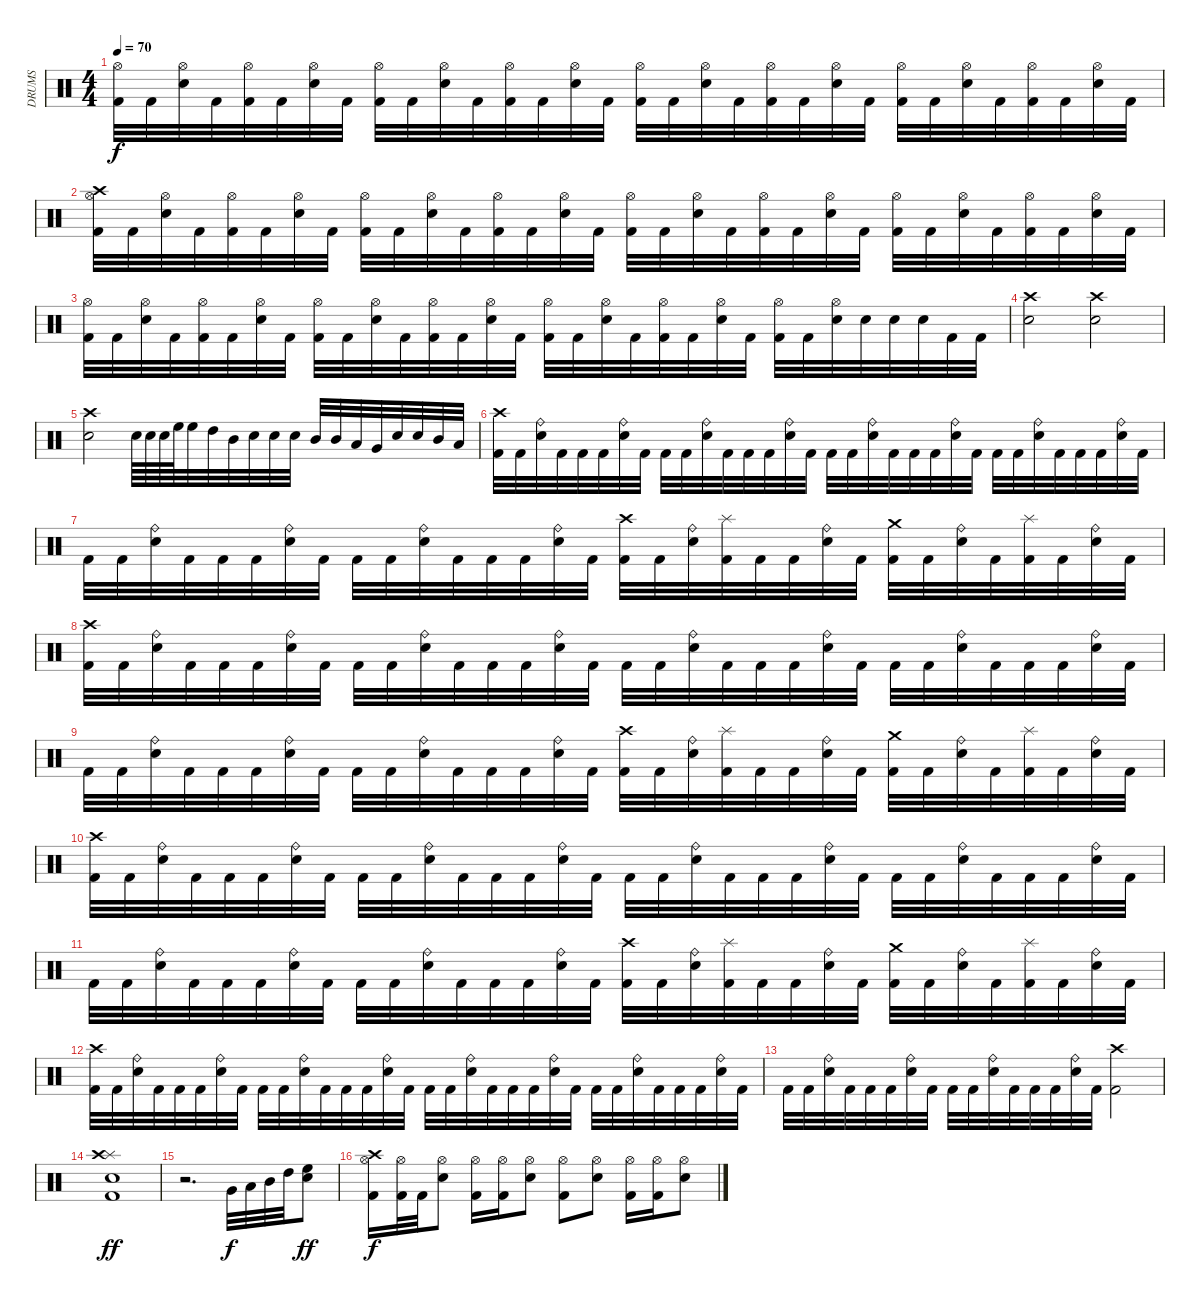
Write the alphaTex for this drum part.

\track ("DRUMS" "DRUMS") {instrument percussion}
\staff {score}
\articulation defaults
\ts (4 4)
\tempo 70
\clef neutral
\ks c
("Hi-Hat (open)" "Kick (hit) 2").32{dy f} "Kick (hit) 2".32 ("Hi-Hat (open)" "Snare (hit) 2").32 "Kick (hit) 2".32 ("Hi-Hat (open)" "Kick (hit) 2").32 "Kick (hit) 2".32 ("Hi-Hat (open)" "Snare (hit) 2").32 "Kick (hit) 2".32 ("Hi-Hat (open)" "Kick (hit) 2").32 "Kick (hit) 2".32 ("Hi-Hat (open)" "Snare (hit) 2").32 "Kick (hit) 2".32 ("Hi-Hat (open)" "Kick (hit) 2").32 "Kick (hit) 2".32 ("Hi-Hat (open)" "Snare (hit) 2").32 "Kick (hit) 2".32 ("Hi-Hat (open)" "Kick (hit) 2").32 "Kick (hit) 2".32 ("Hi-Hat (open)" "Snare (hit) 2").32 "Kick (hit) 2".32 ("Hi-Hat (open)" "Kick (hit) 2").32 "Kick (hit) 2".32 ("Hi-Hat (open)" "Snare (hit) 2").32 "Kick (hit) 2".32 ("Hi-Hat (open)" "Kick (hit) 2").32 "Kick (hit) 2".32 ("Hi-Hat (open)" "Snare (hit) 2").32 "Kick (hit) 2".32 ("Hi-Hat (open)" "Kick (hit) 2").32 "Kick (hit) 2".32 ("Hi-Hat (open)" "Snare (hit) 2").32 "Kick (hit) 2".32 |
("Hi-Hat (open)" "Crash high (hit)" "Kick (hit) 2").32 "Kick (hit) 2".32 ("Hi-Hat (open)" "Snare (hit) 2").32 "Kick (hit) 2".32 ("Hi-Hat (open)" "Kick (hit) 2").32 "Kick (hit) 2".32 ("Hi-Hat (open)" "Snare (hit) 2").32 "Kick (hit) 2".32 ("Hi-Hat (open)" "Kick (hit) 2").32 "Kick (hit) 2".32 ("Hi-Hat (open)" "Snare (hit) 2").32 "Kick (hit) 2".32 ("Hi-Hat (open)" "Kick (hit) 2").32 "Kick (hit) 2".32 ("Hi-Hat (open)" "Snare (hit) 2").32 "Kick (hit) 2".32 ("Hi-Hat (open)" "Kick (hit) 2").32 "Kick (hit) 2".32 ("Hi-Hat (open)" "Snare (hit) 2").32 "Kick (hit) 2".32 ("Hi-Hat (open)" "Kick (hit) 2").32 "Kick (hit) 2".32 ("Hi-Hat (open)" "Snare (hit) 2").32 "Kick (hit) 2".32 ("Hi-Hat (open)" "Kick (hit) 2").32 "Kick (hit) 2".32 ("Hi-Hat (open)" "Snare (hit) 2").32 "Kick (hit) 2".32 ("Hi-Hat (open)" "Kick (hit) 2").32 "Kick (hit) 2".32 ("Hi-Hat (open)" "Snare (hit) 2").32 "Kick (hit) 2".32 |
("Hi-Hat (open)" "Kick (hit) 2").32 "Kick (hit) 2".32 ("Hi-Hat (open)" "Snare (hit) 2").32 "Kick (hit) 2".32 ("Hi-Hat (open)" "Kick (hit) 2").32 "Kick (hit) 2".32 ("Hi-Hat (open)" "Snare (hit) 2").32 "Kick (hit) 2".32 ("Hi-Hat (open)" "Kick (hit) 2").32 "Kick (hit) 2".32 ("Hi-Hat (open)" "Snare (hit) 2").32 "Kick (hit) 2".32 ("Hi-Hat (open)" "Kick (hit) 2").32 "Kick (hit) 2".32 ("Hi-Hat (open)" "Snare (hit) 2").32 "Kick (hit) 2".32 ("Hi-Hat (open)" "Kick (hit) 2").32 "Kick (hit) 2".32 ("Hi-Hat (open)" "Snare (hit) 2").32 "Kick (hit) 2".32 ("Hi-Hat (open)" "Kick (hit) 2").32 "Kick (hit) 2".32 ("Hi-Hat (open)" "Snare (hit) 2").32 "Kick (hit) 2".32 ("Hi-Hat (open)" "Kick (hit) 2").32 "Kick (hit) 2".32 ("Hi-Hat (open)" "Snare (hit) 2").32 "Snare (hit) 2".32 "Snare (hit) 2".32 "Snare (hit) 2".32 "Kick (hit) 2".32 "Kick (hit) 2".32 |
("Crash high (hit)" "Snare (hit) 2").2 ("Crash high (hit)" "Snare (hit) 2").2 |
("Crash high (hit)" "Snare (hit) 2").2 "Snare (hit) 2".64 "Snare (hit) 2".64 "Snare (hit) 2".64 "High Floor Tom (hit)".64 "High Floor Tom (hit)".32 "High Tom (hit)".32 "Mid Tom (hit)".32 "Snare (hit) 2".32 "Snare (hit) 2".32 "Snare (hit) 2".32 "Mid Tom (hit)".32 "Mid Tom (hit)".32 "Low Tom (hit)".32 "Very Low Tom (hit)".32 "Snare (hit) 2".32 "Snare (hit) 2".32 "Mid Tom (hit)".32 "Low Tom (hit)".32 |
("Crash high (hit)" "Kick (hit) 2").32 "Kick (hit) 2".32 ("Ride (bell)" "Snare (hit) 2").32 "Kick (hit) 2".32 "Kick (hit) 2".32 "Kick (hit) 2".32 ("Ride (bell)" "Snare (hit) 2").32 "Kick (hit) 2".32 "Kick (hit) 2".32 "Kick (hit) 2".32 ("Ride (bell)" "Snare (hit) 2").32 "Kick (hit) 2".32 "Kick (hit) 2".32 "Kick (hit) 2".32 ("Ride (bell)" "Snare (hit) 2").32 "Kick (hit) 2".32 "Kick (hit) 2".32 "Kick (hit) 2".32 ("Ride (bell)" "Snare (hit) 2").32 "Kick (hit) 2".32 "Kick (hit) 2".32 "Kick (hit) 2".32 ("Ride (bell)" "Snare (hit) 2").32 "Kick (hit) 2".32 "Kick (hit) 2".32 "Kick (hit) 2".32 ("Ride (bell)" "Snare (hit) 2").32 "Kick (hit) 2".32 "Kick (hit) 2".32 "Kick (hit) 2".32 ("Ride (bell)" "Snare (hit) 2").32 "Kick (hit) 2".32 |
"Kick (hit) 2".32 "Kick (hit) 2".32 ("Ride (bell)" "Snare (hit) 2").32 "Kick (hit) 2".32 "Kick (hit) 2".32 "Kick (hit) 2".32 ("Ride (bell)" "Snare (hit) 2").32 "Kick (hit) 2".32 "Kick (hit) 2".32 "Kick (hit) 2".32 ("Ride (bell)" "Snare (hit) 2").32 "Kick (hit) 2".32 "Kick (hit) 2".32 "Kick (hit) 2".32 ("Ride (bell)" "Snare (hit) 2").32 "Kick (hit) 2".32 ("Crash high (hit)" "Kick (hit) 2").32 "Kick (hit) 2".32 ("Ride (bell)" "Snare (hit) 2").32 ("Splash (hit)" "Kick (hit) 2").32 "Kick (hit) 2".32 "Kick (hit) 2".32 ("Ride (bell)" "Snare (hit) 2").32 "Kick (hit) 2".32 ("Crash medium (hit)" "Kick (hit) 2").32 "Kick (hit) 2".32 ("Ride (bell)" "Snare (hit) 2").32 "Kick (hit) 2".32 ("Splash (hit)" "Kick (hit) 2").32 "Kick (hit) 2".32 ("Ride (bell)" "Snare (hit) 2").32 "Kick (hit) 2".32 |
("Crash high (hit)" "Kick (hit) 2").32 "Kick (hit) 2".32 ("Ride (bell)" "Snare (hit) 2").32 "Kick (hit) 2".32 "Kick (hit) 2".32 "Kick (hit) 2".32 ("Ride (bell)" "Snare (hit) 2").32 "Kick (hit) 2".32 "Kick (hit) 2".32 "Kick (hit) 2".32 ("Ride (bell)" "Snare (hit) 2").32 "Kick (hit) 2".32 "Kick (hit) 2".32 "Kick (hit) 2".32 ("Ride (bell)" "Snare (hit) 2").32 "Kick (hit) 2".32 "Kick (hit) 2".32 "Kick (hit) 2".32 ("Ride (bell)" "Snare (hit) 2").32 "Kick (hit) 2".32 "Kick (hit) 2".32 "Kick (hit) 2".32 ("Ride (bell)" "Snare (hit) 2").32 "Kick (hit) 2".32 "Kick (hit) 2".32 "Kick (hit) 2".32 ("Ride (bell)" "Snare (hit) 2").32 "Kick (hit) 2".32 "Kick (hit) 2".32 "Kick (hit) 2".32 ("Ride (bell)" "Snare (hit) 2").32 "Kick (hit) 2".32 |
"Kick (hit) 2".32 "Kick (hit) 2".32 ("Ride (bell)" "Snare (hit) 2").32 "Kick (hit) 2".32 "Kick (hit) 2".32 "Kick (hit) 2".32 ("Ride (bell)" "Snare (hit) 2").32 "Kick (hit) 2".32 "Kick (hit) 2".32 "Kick (hit) 2".32 ("Ride (bell)" "Snare (hit) 2").32 "Kick (hit) 2".32 "Kick (hit) 2".32 "Kick (hit) 2".32 ("Ride (bell)" "Snare (hit) 2").32 "Kick (hit) 2".32 ("Crash high (hit)" "Kick (hit) 2").32 "Kick (hit) 2".32 ("Ride (bell)" "Snare (hit) 2").32 ("Splash (hit)" "Kick (hit) 2").32 "Kick (hit) 2".32 "Kick (hit) 2".32 ("Ride (bell)" "Snare (hit) 2").32 "Kick (hit) 2".32 ("Crash medium (hit)" "Kick (hit) 2").32 "Kick (hit) 2".32 ("Ride (bell)" "Snare (hit) 2").32 "Kick (hit) 2".32 ("Splash (hit)" "Kick (hit) 2").32 "Kick (hit) 2".32 ("Ride (bell)" "Snare (hit) 2").32 "Kick (hit) 2".32 |
("Crash high (hit)" "Kick (hit) 2").32 "Kick (hit) 2".32 ("Ride (bell)" "Snare (hit) 2").32 "Kick (hit) 2".32 "Kick (hit) 2".32 "Kick (hit) 2".32 ("Ride (bell)" "Snare (hit) 2").32 "Kick (hit) 2".32 "Kick (hit) 2".32 "Kick (hit) 2".32 ("Ride (bell)" "Snare (hit) 2").32 "Kick (hit) 2".32 "Kick (hit) 2".32 "Kick (hit) 2".32 ("Ride (bell)" "Snare (hit) 2").32 "Kick (hit) 2".32 "Kick (hit) 2".32 "Kick (hit) 2".32 ("Ride (bell)" "Snare (hit) 2").32 "Kick (hit) 2".32 "Kick (hit) 2".32 "Kick (hit) 2".32 ("Ride (bell)" "Snare (hit) 2").32 "Kick (hit) 2".32 "Kick (hit) 2".32 "Kick (hit) 2".32 ("Ride (bell)" "Snare (hit) 2").32 "Kick (hit) 2".32 "Kick (hit) 2".32 "Kick (hit) 2".32 ("Ride (bell)" "Snare (hit) 2").32 "Kick (hit) 2".32 |
"Kick (hit) 2".32 "Kick (hit) 2".32 ("Ride (bell)" "Snare (hit) 2").32 "Kick (hit) 2".32 "Kick (hit) 2".32 "Kick (hit) 2".32 ("Ride (bell)" "Snare (hit) 2").32 "Kick (hit) 2".32 "Kick (hit) 2".32 "Kick (hit) 2".32 ("Ride (bell)" "Snare (hit) 2").32 "Kick (hit) 2".32 "Kick (hit) 2".32 "Kick (hit) 2".32 ("Ride (bell)" "Snare (hit) 2").32 "Kick (hit) 2".32 ("Crash high (hit)" "Kick (hit) 2").32 "Kick (hit) 2".32 ("Ride (bell)" "Snare (hit) 2").32 ("Splash (hit)" "Kick (hit) 2").32 "Kick (hit) 2".32 "Kick (hit) 2".32 ("Ride (bell)" "Snare (hit) 2").32 "Kick (hit) 2".32 ("Crash medium (hit)" "Kick (hit) 2").32 "Kick (hit) 2".32 ("Ride (bell)" "Snare (hit) 2").32 "Kick (hit) 2".32 ("Splash (hit)" "Kick (hit) 2").32 "Kick (hit) 2".32 ("Ride (bell)" "Snare (hit) 2").32 "Kick (hit) 2".32 |
("Crash high (hit)" "Kick (hit) 2").32 "Kick (hit) 2".32 ("Ride (bell)" "Snare (hit) 2").32 "Kick (hit) 2".32 "Kick (hit) 2".32 "Kick (hit) 2".32 ("Ride (bell)" "Snare (hit) 2").32 "Kick (hit) 2".32 "Kick (hit) 2".32 "Kick (hit) 2".32 ("Ride (bell)" "Snare (hit) 2").32 "Kick (hit) 2".32 "Kick (hit) 2".32 "Kick (hit) 2".32 ("Ride (bell)" "Snare (hit) 2").32 "Kick (hit) 2".32 "Kick (hit) 2".32 "Kick (hit) 2".32 ("Ride (bell)" "Snare (hit) 2").32 "Kick (hit) 2".32 "Kick (hit) 2".32 "Kick (hit) 2".32 ("Ride (bell)" "Snare (hit) 2").32 "Kick (hit) 2".32 "Kick (hit) 2".32 "Kick (hit) 2".32 ("Ride (bell)" "Snare (hit) 2").32 "Kick (hit) 2".32 "Kick (hit) 2".32 "Kick (hit) 2".32 ("Ride (bell)" "Snare (hit) 2").32 "Kick (hit) 2".32 |
"Kick (hit) 2".32 "Kick (hit) 2".32 ("Ride (bell)" "Snare (hit) 2").32 "Kick (hit) 2".32 "Kick (hit) 2".32 "Kick (hit) 2".32 ("Ride (bell)" "Snare (hit) 2").32 "Kick (hit) 2".32 "Kick (hit) 2".32 "Kick (hit) 2".32 ("Ride (bell)" "Snare (hit) 2").32 "Kick (hit) 2".32 "Kick (hit) 2".32 "Kick (hit) 2".32 ("Ride (bell)" "Snare (hit) 2").32 "Kick (hit) 2".32 ("Crash high (hit)" "Kick (hit) 2").2 |
("Snare (hit) 2" "Splash (hit)" "Crash high (hit)" "Kick (hit) 2").1{dy ff} |
r.2{d} "Very Low Tom (hit)".32{dy f} "Low Tom (hit)".32 "Mid Tom (hit)".32 "High Tom (hit)".32 ("Snare (hit) 2" "High Floor Tom (hit)").8{dy ff} |
("Hi-Hat (open)" "Crash high (hit)" "Kick (hit) 2").16{dy f} ("Hi-Hat (open)" "Kick (hit) 2").32 "Kick (hit) 2".32 ("Hi-Hat (open)" "Snare (hit) 2").8 ("Hi-Hat (open)" "Kick (hit) 2").16 ("Hi-Hat (open)" "Kick (hit) 2").16 ("Hi-Hat (open)" "Snare (hit) 2").8 ("Hi-Hat (open)" "Kick (hit) 2").8 ("Hi-Hat (open)" "Snare (hit) 2").8 ("Hi-Hat (open)" "Kick (hit) 2").16 ("Hi-Hat (open)" "Kick (hit) 2").16 ("Hi-Hat (open)" "Snare (hit) 2").8
